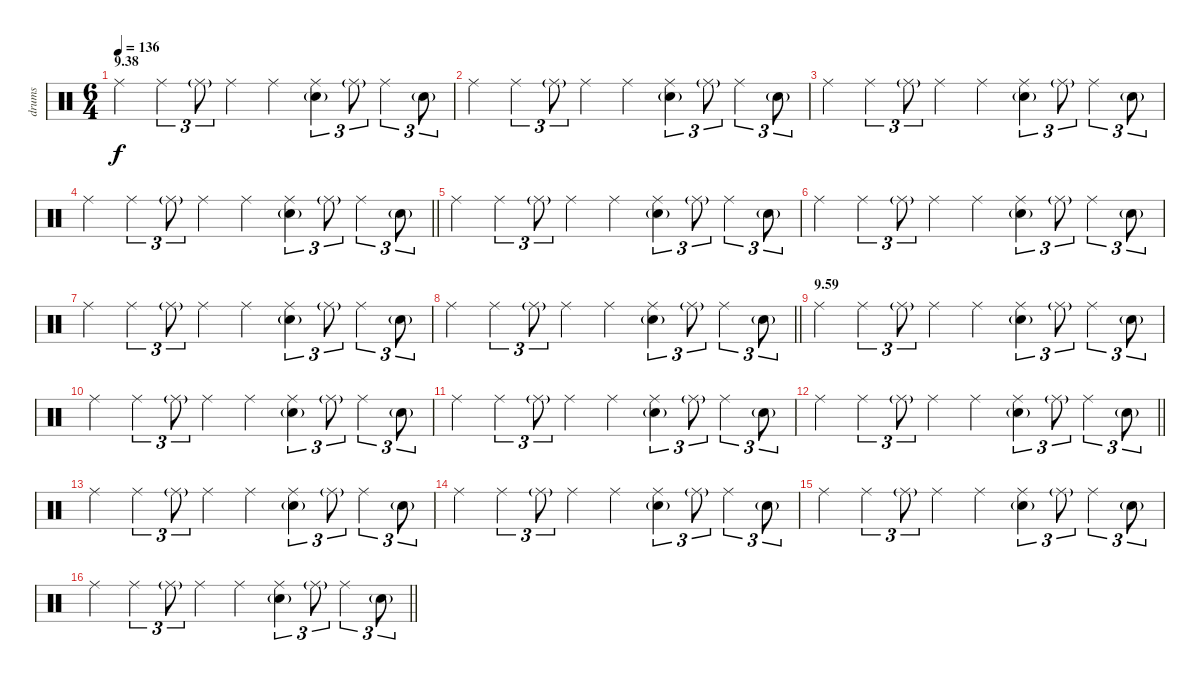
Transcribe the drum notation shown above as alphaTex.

\track ("drums" "drums") {instrument percussion}
\staff {score}
\articulation defaults
\ts (6 4)
\section ("" "9.38")
\tempo 136
\clef neutral
\ks c "Ride (middle)".4{dy f} "Ride (middle)".4{tu (3 2)} "Ride (middle)"{g}.8{tu (3 2)} "Ride (middle)".4 "Ride (middle)".4
("Ride (middle)" "Electric Snare (hit)"{g}).4{tu (3 2)} "Ride (middle)"{g}.8{tu (3 2)} "Ride (middle)".4{tu (3 2)} "Electric Snare (hit)"{g}.8{tu (3 2)} |
"Ride (middle)".4 "Ride (middle)".4{tu (3 2)} "Ride (middle)"{g}.8{tu (3 2)} "Ride (middle)".4 "Ride (middle)".4 ("Ride (middle)" "Electric Snare (hit)"{g}).4{tu (3 2)} "Ride (middle)"{g}.8{tu (3 2)} "Ride (middle)".4{tu (3 2)} "Electric Snare (hit)"{g}.8{tu (3 2)} |
"Ride (middle)".4 "Ride (middle)".4{tu (3 2)} "Ride (middle)"{g}.8{tu (3 2)} "Ride (middle)".4 "Ride (middle)".4 ("Ride (middle)" "Electric Snare (hit)"{g}).4{tu (3 2)} "Ride (middle)"{g}.8{tu (3 2)} "Ride (middle)".4{tu (3 2)} "Electric Snare (hit)"{g}.8{tu (3 2)} |
\barLineRight lightlight "Ride (middle)".4 "Ride (middle)".4{tu (3 2)} "Ride (middle)"{g}.8{tu (3 2)} "Ride (middle)".4 "Ride (middle)".4
("Ride (middle)" "Electric Snare (hit)"{g}).4{tu (3 2)} "Ride (middle)"{g}.8{tu (3 2)} "Ride (middle)".4{tu (3 2)} "Electric Snare (hit)"{g}.8{tu (3 2)} |
"Ride (middle)".4 "Ride (middle)".4{tu (3 2)} "Ride (middle)"{g}.8{tu (3 2)} "Ride (middle)".4 "Ride (middle)".4 ("Ride (middle)" "Electric Snare (hit)"{g}).4{tu (3 2)} "Ride (middle)"{g}.8{tu (3 2)} "Ride (middle)".4{tu (3 2)} "Electric Snare (hit)"{g}.8{tu (3 2)} |
"Ride (middle)".4 "Ride (middle)".4{tu (3 2)} "Ride (middle)"{g}.8{tu (3 2)} "Ride (middle)".4 "Ride (middle)".4 ("Ride (middle)" "Electric Snare (hit)"{g}).4{tu (3 2)} "Ride (middle)"{g}.8{tu (3 2)} "Ride (middle)".4{tu (3 2)} "Electric Snare (hit)"{g}.8{tu (3 2)} |
"Ride (middle)".4 "Ride (middle)".4{tu (3 2)} "Ride (middle)"{g}.8{tu (3 2)} "Ride (middle)".4 "Ride (middle)".4 ("Ride (middle)" "Electric Snare (hit)"{g}).4{tu (3 2)} "Ride (middle)"{g}.8{tu (3 2)} "Ride (middle)".4{tu (3 2)} "Electric Snare (hit)"{g}.8{tu (3 2)} |
\barLineRight lightlight "Ride (middle)".4 "Ride (middle)".4{tu (3 2)} "Ride (middle)"{g}.8{tu (3 2)} "Ride (middle)".4 "Ride (middle)".4
("Ride (middle)" "Electric Snare (hit)"{g}).4{tu (3 2)} "Ride (middle)"{g}.8{tu (3 2)} "Ride (middle)".4{tu (3 2)} "Electric Snare (hit)"{g}.8{tu (3 2)} |
\section ("" "9.59")
"Ride (middle)".4 "Ride (middle)".4{tu (3 2)} "Ride (middle)"{g}.8{tu (3 2)} "Ride (middle)".4 "Ride (middle)".4 ("Ride (middle)" "Electric Snare (hit)"{g}).4{tu (3 2)} "Ride (middle)"{g}.8{tu (3 2)} "Ride (middle)".4{tu (3 2)} "Electric Snare (hit)"{g}.8{tu (3 2)} |
"Ride (middle)".4 "Ride (middle)".4{tu (3 2)} "Ride (middle)"{g}.8{tu (3 2)} "Ride (middle)".4 "Ride (middle)".4 ("Ride (middle)" "Electric Snare (hit)"{g}).4{tu (3 2)} "Ride (middle)"{g}.8{tu (3 2)} "Ride (middle)".4{tu (3 2)} "Electric Snare (hit)"{g}.8{tu (3 2)} |
"Ride (middle)".4 "Ride (middle)".4{tu (3 2)} "Ride (middle)"{g}.8{tu (3 2)} "Ride (middle)".4 "Ride (middle)".4 ("Ride (middle)" "Electric Snare (hit)"{g}).4{tu (3 2)} "Ride (middle)"{g}.8{tu (3 2)} "Ride (middle)".4{tu (3 2)} "Electric Snare (hit)"{g}.8{tu (3 2)} |
\barLineRight lightlight "Ride (middle)".4 "Ride (middle)".4{tu (3 2)} "Ride (middle)"{g}.8{tu (3 2)} "Ride (middle)".4 "Ride (middle)".4
("Ride (middle)" "Electric Snare (hit)"{g}).4{tu (3 2)} "Ride (middle)"{g}.8{tu (3 2)} "Ride (middle)".4{tu (3 2)} "Electric Snare (hit)"{g}.8{tu (3 2)} |
"Ride (middle)".4 "Ride (middle)".4{tu (3 2)} "Ride (middle)"{g}.8{tu (3 2)} "Ride (middle)".4 "Ride (middle)".4 ("Ride (middle)" "Electric Snare (hit)"{g}).4{tu (3 2)} "Ride (middle)"{g}.8{tu (3 2)} "Ride (middle)".4{tu (3 2)} "Electric Snare (hit)"{g}.8{tu (3 2)} |
"Ride (middle)".4 "Ride (middle)".4{tu (3 2)} "Ride (middle)"{g}.8{tu (3 2)} "Ride (middle)".4 "Ride (middle)".4 ("Ride (middle)" "Electric Snare (hit)"{g}).4{tu (3 2)} "Ride (middle)"{g}.8{tu (3 2)} "Ride (middle)".4{tu (3 2)} "Electric Snare (hit)"{g}.8{tu (3 2)} |
"Ride (middle)".4 "Ride (middle)".4{tu (3 2)} "Ride (middle)"{g}.8{tu (3 2)} "Ride (middle)".4 "Ride (middle)".4 ("Ride (middle)" "Electric Snare (hit)"{g}).4{tu (3 2)} "Ride (middle)"{g}.8{tu (3 2)} "Ride (middle)".4{tu (3 2)} "Electric Snare (hit)"{g}.8{tu (3 2)} |
\barLineRight lightlight "Ride (middle)".4 "Ride (middle)".4{tu (3 2)} "Ride (middle)"{g}.8{tu (3 2)} "Ride (middle)".4 "Ride (middle)".4
("Ride (middle)" "Electric Snare (hit)"{g}).4{tu (3 2)} "Ride (middle)"{g}.8{tu (3 2)} "Ride (middle)".4{tu (3 2)} "Electric Snare (hit)"{g}.8{tu (3 2)}
